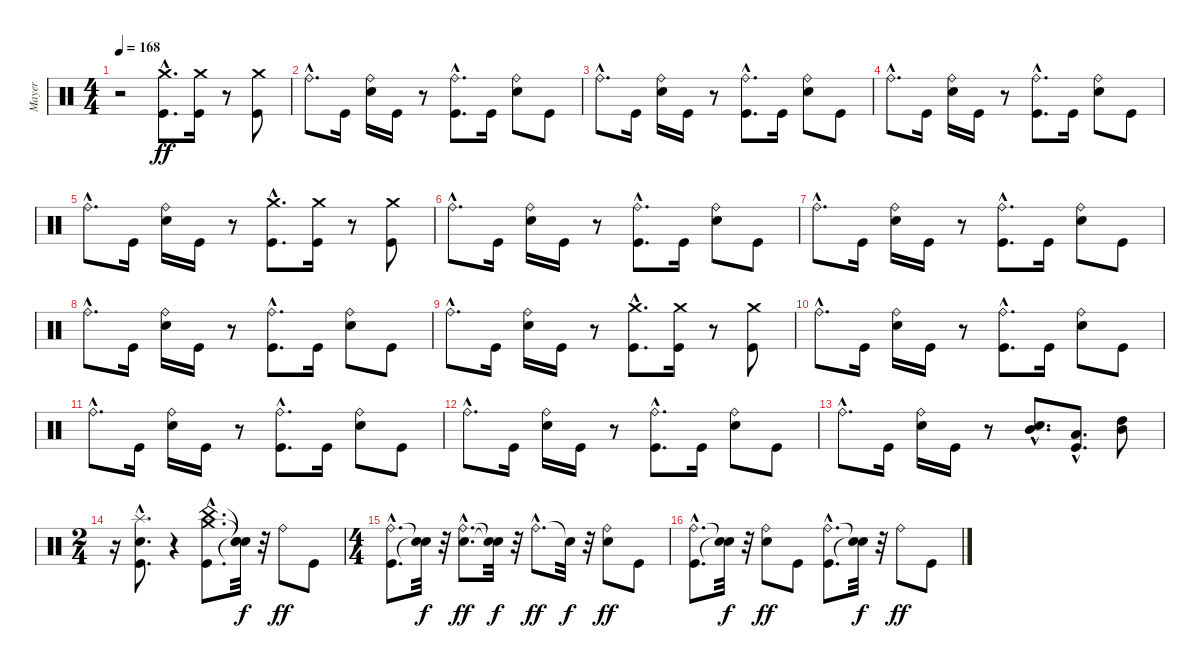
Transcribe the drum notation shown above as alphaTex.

\track ("Mayer" "Mayer") {instrument percussion}
\staff {score}
\articulation defaults
\ts (4 4)
\tempo 168
\clef neutral
\ks c
r.2{dy ff} ("Kick (hit)"{hac} "Crash medium (hit)"{hac}).8{d} ("Kick (hit)" "Crash medium (hit)").16 r.8 ("Kick (hit)" "Crash medium (hit)").8 |
"Ride (bell)"{hac}.8{d} "Kick (hit)".16 ("Electric Snare (hit)" "Ride (bell)").16 "Kick (hit)".16 r.8 ("Kick (hit)"{hac} "Ride (bell)"{hac}).8{d} "Kick (hit)".16 ("Electric Snare (hit)" "Ride (bell)").8 "Kick (hit)".8 |
"Ride (bell)"{hac}.8{d} "Kick (hit)".16 ("Electric Snare (hit)" "Ride (bell)").16 "Kick (hit)".16 r.8 ("Kick (hit)"{hac} "Ride (bell)"{hac}).8{d} "Kick (hit)".16 ("Electric Snare (hit)" "Ride (bell)").8 "Kick (hit)".8 |
"Ride (bell)"{hac}.8{d} "Kick (hit)".16 ("Electric Snare (hit)" "Ride (bell)").16 "Kick (hit)".16 r.8 ("Kick (hit)"{hac} "Ride (bell)"{hac}).8{d} "Kick (hit)".16 ("Electric Snare (hit)" "Ride (bell)").8 "Kick (hit)".8 |
"Ride (bell)"{hac}.8{d} "Kick (hit)".16 ("Electric Snare (hit)" "Ride (bell)").16 "Kick (hit)".16 r.8 ("Kick (hit)"{hac} "Crash medium (hit)"{hac}).8{d} ("Kick (hit)" "Crash medium (hit)").16 r.8 ("Kick (hit)" "Crash medium (hit)").8 |
"Ride (bell)"{hac}.8{d} "Kick (hit)".16 ("Electric Snare (hit)" "Ride (bell)").16 "Kick (hit)".16 r.8 ("Kick (hit)"{hac} "Ride (bell)"{hac}).8{d} "Kick (hit)".16 ("Electric Snare (hit)" "Ride (bell)").8 "Kick (hit)".8 |
"Ride (bell)"{hac}.8{d} "Kick (hit)".16 ("Electric Snare (hit)" "Ride (bell)").16 "Kick (hit)".16 r.8 ("Kick (hit)"{hac} "Ride (bell)"{hac}).8{d} "Kick (hit)".16 ("Electric Snare (hit)" "Ride (bell)").8 "Kick (hit)".8 |
"Ride (bell)"{hac}.8{d} "Kick (hit)".16 ("Electric Snare (hit)" "Ride (bell)").16 "Kick (hit)".16 r.8 ("Kick (hit)"{hac} "Ride (bell)"{hac}).8{d} "Kick (hit)".16 ("Electric Snare (hit)" "Ride (bell)").8 "Kick (hit)".8 |
"Ride (bell)"{hac}.8{d} "Kick (hit)".16 ("Electric Snare (hit)" "Ride (bell)").16 "Kick (hit)".16 r.8 ("Kick (hit)"{hac} "Crash medium (hit)"{hac}).8{d} ("Kick (hit)" "Crash medium (hit)").16 r.8 ("Kick (hit)" "Crash medium (hit)").8 |
"Ride (bell)"{hac}.8{d} "Kick (hit)".16 ("Electric Snare (hit)" "Ride (bell)").16 "Kick (hit)".16 r.8 ("Kick (hit)"{hac} "Ride (bell)"{hac}).8{d} "Kick (hit)".16 ("Electric Snare (hit)" "Ride (bell)").8 "Kick (hit)".8 |
"Ride (bell)"{hac}.8{d} "Kick (hit)".16 ("Electric Snare (hit)" "Ride (bell)").16 "Kick (hit)".16 r.8 ("Kick (hit)"{hac} "Ride (bell)"{hac}).8{d} "Kick (hit)".16 ("Electric Snare (hit)" "Ride (bell)").8 "Kick (hit)".8 |
"Ride (bell)"{hac}.8{d} "Kick (hit)".16 ("Electric Snare (hit)" "Ride (bell)").16 "Kick (hit)".16 r.8 ("Kick (hit)"{hac} "Ride (bell)"{hac}).8{d} "Kick (hit)".16 ("Electric Snare (hit)" "Ride (bell)").8 "Kick (hit)".8 |
"Ride (bell)"{hac}.8{d} "Kick (hit)".16 ("Electric Snare (hit)" "Ride (bell)").16 "Kick (hit)".16 r.8 ("Electric Snare (hit)"{hac} "Mid Tom (hit)"{hac}).8{d} ("Kick (hit)"{hac} "Low Tom (hit)"{hac}).8{d} ("Mid Tom (hit)" "High Tom (hit)").8 |
\ts (2 4)
r.16 ("Kick (hit)"{hac} "Electric Snare (hit)"{hac} "Splash (hit)"{hac}).8{d} r.4 ("Kick (hit)"{hac} "China (hit)"{hac} "Crash medium (hit)"{hac}).8{d} ("Snare (hit)"{t} "Snare (hit)"{t} "Snare (hit)"{t}).32{dy f} r.32 "Ride (bell)".8{dy ff} "Kick (hit)".8 |
\ts (4 4)
("Kick (hit)"{hac} "Ride (bell)"{hac}).8{d} ("Snare (hit)"{t} "Snare (hit)"{t}).32{dy f} r.32 ("Electric Snare (hit)"{hac} "Ride (bell)"{hac}).8{d dy ff} ("Snare (hit)"{t} "Snare (hit)"{t}).32{dy f} r.32 "Ride (bell)"{hac}.8{d dy ff} "Snare (hit)"{t}.32{dy f} r.32 ("Electric Snare (hit)" "Ride (bell)").8{dy ff} "Kick (hit)".8 |
("Kick (hit)"{hac} "Ride (bell)"{hac}).8{d} ("Snare (hit)"{t} "Snare (hit)"{t}).32{dy f} r.32 ("Electric Snare (hit)" "Ride (bell)").8{dy ff} "Kick (hit)".8 ("Kick (hit)"{hac} "Ride (bell)"{hac}).8{d} ("Snare (hit)"{t} "Snare (hit)"{t}).32{dy f} r.32 "Ride (bell)".8{dy ff} "Kick (hit)".8
